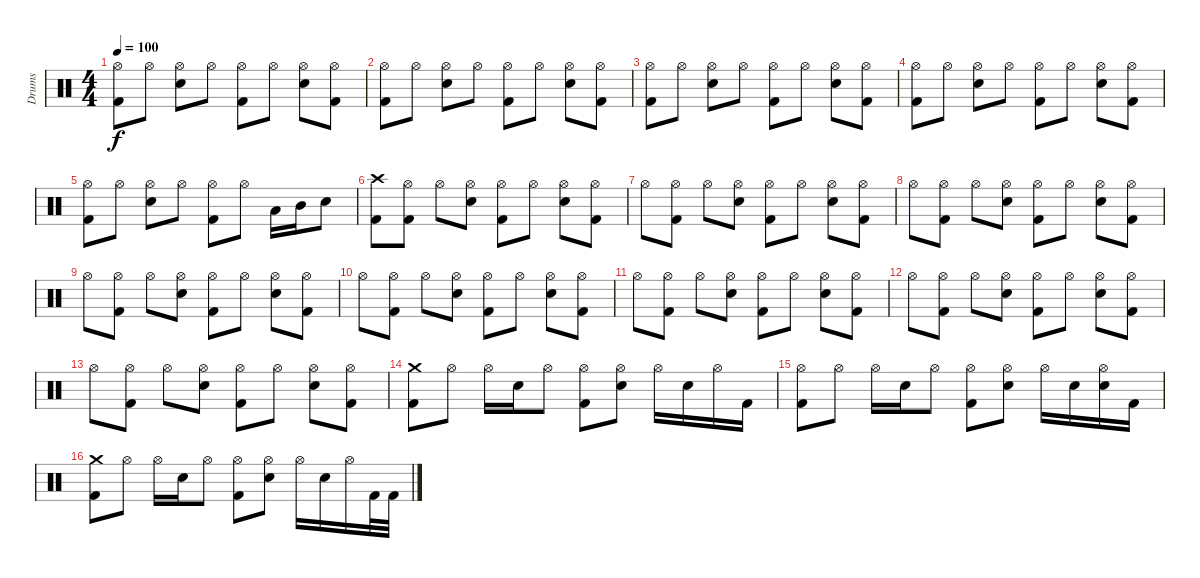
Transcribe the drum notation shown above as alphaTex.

\track ("Drums" "Drums") {instrument percussion}
\staff {score}
\articulation defaults
\ts (4 4)
\tempo 100
\clef neutral
\ks c
("Hi-Hat (open)" "Kick (hit) 2").8{dy f} "Hi-Hat (open)".8 ("Hi-Hat (open)" "Snare (hit) 2").8 "Hi-Hat (open)".8 ("Hi-Hat (open)" "Kick (hit) 2").8 "Hi-Hat (open)".8 ("Hi-Hat (open)" "Snare (hit) 2").8 ("Hi-Hat (open)" "Kick (hit) 2").8 |
("Hi-Hat (open)" "Kick (hit) 2").8 "Hi-Hat (open)".8 ("Hi-Hat (open)" "Snare (hit) 2").8 "Hi-Hat (open)".8 ("Hi-Hat (open)" "Kick (hit) 2").8 "Hi-Hat (open)".8 ("Hi-Hat (open)" "Snare (hit) 2").8 ("Hi-Hat (open)" "Kick (hit) 2").8 |
("Hi-Hat (open)" "Kick (hit) 2").8 "Hi-Hat (open)".8 ("Hi-Hat (open)" "Snare (hit) 2").8 "Hi-Hat (open)".8 ("Hi-Hat (open)" "Kick (hit) 2").8 "Hi-Hat (open)".8 ("Hi-Hat (open)" "Snare (hit) 2").8 ("Hi-Hat (open)" "Kick (hit) 2").8 |
("Hi-Hat (open)" "Kick (hit) 2").8 "Hi-Hat (open)".8 ("Hi-Hat (open)" "Snare (hit) 2").8 "Hi-Hat (open)".8 ("Hi-Hat (open)" "Kick (hit) 2").8 "Hi-Hat (open)".8 ("Hi-Hat (open)" "Snare (hit) 2").8 ("Hi-Hat (open)" "Kick (hit) 2").8 |
("Hi-Hat (open)" "Kick (hit) 2").8 "Hi-Hat (open)".8 ("Hi-Hat (open)" "Snare (hit) 2").8 "Hi-Hat (open)".8 ("Hi-Hat (open)" "Kick (hit) 2").8 "Hi-Hat (open)".8 "Low Tom (hit)".16 "Mid Tom (hit)".16 "Snare (hit) 2".8 |
("Crash high (hit)" "Kick (hit) 2").8 ("Hi-Hat (open)" "Kick (hit) 2").8 "Hi-Hat (open)".8 ("Hi-Hat (open)" "Snare (hit) 2").8 ("Hi-Hat (open)" "Kick (hit) 2").8 "Hi-Hat (open)".8 ("Hi-Hat (open)" "Snare (hit) 2").8 ("Hi-Hat (open)" "Kick (hit) 2").8 |
"Hi-Hat (open)".8 ("Hi-Hat (open)" "Kick (hit) 2").8 "Hi-Hat (open)".8 ("Hi-Hat (open)" "Snare (hit) 2").8 ("Hi-Hat (open)" "Kick (hit) 2").8 "Hi-Hat (open)".8 ("Hi-Hat (open)" "Snare (hit) 2").8 ("Hi-Hat (open)" "Kick (hit) 2").8 |
"Hi-Hat (open)".8 ("Hi-Hat (open)" "Kick (hit) 2").8 "Hi-Hat (open)".8 ("Hi-Hat (open)" "Snare (hit) 2").8 ("Hi-Hat (open)" "Kick (hit) 2").8 "Hi-Hat (open)".8 ("Hi-Hat (open)" "Snare (hit) 2").8 ("Hi-Hat (open)" "Kick (hit) 2").8 |
"Hi-Hat (open)".8 ("Hi-Hat (open)" "Kick (hit) 2").8 "Hi-Hat (open)".8 ("Hi-Hat (open)" "Snare (hit) 2").8 ("Hi-Hat (open)" "Kick (hit) 2").8 "Hi-Hat (open)".8 ("Hi-Hat (open)" "Snare (hit) 2").8 ("Hi-Hat (open)" "Kick (hit) 2").8 |
"Hi-Hat (open)".8 ("Hi-Hat (open)" "Kick (hit) 2").8 "Hi-Hat (open)".8 ("Hi-Hat (open)" "Snare (hit) 2").8 ("Hi-Hat (open)" "Kick (hit) 2").8 "Hi-Hat (open)".8 ("Hi-Hat (open)" "Snare (hit) 2").8 ("Hi-Hat (open)" "Kick (hit) 2").8 |
"Hi-Hat (open)".8 ("Hi-Hat (open)" "Kick (hit) 2").8 "Hi-Hat (open)".8 ("Hi-Hat (open)" "Snare (hit) 2").8 ("Hi-Hat (open)" "Kick (hit) 2").8 "Hi-Hat (open)".8 ("Hi-Hat (open)" "Snare (hit) 2").8 ("Hi-Hat (open)" "Kick (hit) 2").8 |
"Hi-Hat (open)".8 ("Hi-Hat (open)" "Kick (hit) 2").8 "Hi-Hat (open)".8 ("Hi-Hat (open)" "Snare (hit) 2").8 ("Hi-Hat (open)" "Kick (hit) 2").8 "Hi-Hat (open)".8 ("Hi-Hat (open)" "Snare (hit) 2").8 ("Hi-Hat (open)" "Kick (hit) 2").8 |
"Hi-Hat (open)".8 ("Hi-Hat (open)" "Kick (hit) 2").8 "Hi-Hat (open)".8 ("Hi-Hat (open)" "Snare (hit) 2").8 ("Hi-Hat (open)" "Kick (hit) 2").8 "Hi-Hat (open)".8 ("Hi-Hat (open)" "Snare (hit) 2").8 ("Hi-Hat (open)" "Kick (hit) 2").8 |
("Crash medium (hit)" "Kick (hit) 2").8 "Hi-Hat (open)".8 "Hi-Hat (open)".16 "Snare (hit) 2".16 "Hi-Hat (open)".8 ("Hi-Hat (open)" "Kick (hit) 2").8 ("Hi-Hat (open)" "Snare (hit) 2").8 "Hi-Hat (open)".16 "Snare (hit) 2".16 "Hi-Hat (open)".16 "Kick (hit) 2".16 |
("Hi-Hat (open)" "Kick (hit) 2").8 "Hi-Hat (open)".8 "Hi-Hat (open)".16 "Snare (hit) 2".16 "Hi-Hat (open)".8 ("Hi-Hat (open)" "Kick (hit) 2").8 ("Hi-Hat (open)" "Snare (hit) 2").8 "Hi-Hat (open)".16 "Snare (hit) 2".16 ("Hi-Hat (open)" "Snare (hit) 2").16 "Kick (hit) 2".16 |
("Crash medium (hit)" "Kick (hit) 2").8 "Hi-Hat (open)".8 "Hi-Hat (open)".16 "Snare (hit) 2".16 "Hi-Hat (open)".8 ("Hi-Hat (open)" "Kick (hit) 2").8 ("Hi-Hat (open)" "Snare (hit) 2").8 "Hi-Hat (open)".16 "Snare (hit) 2".16 "Hi-Hat (open)".16 "Kick (hit) 2".32 "Kick (hit) 2".32
